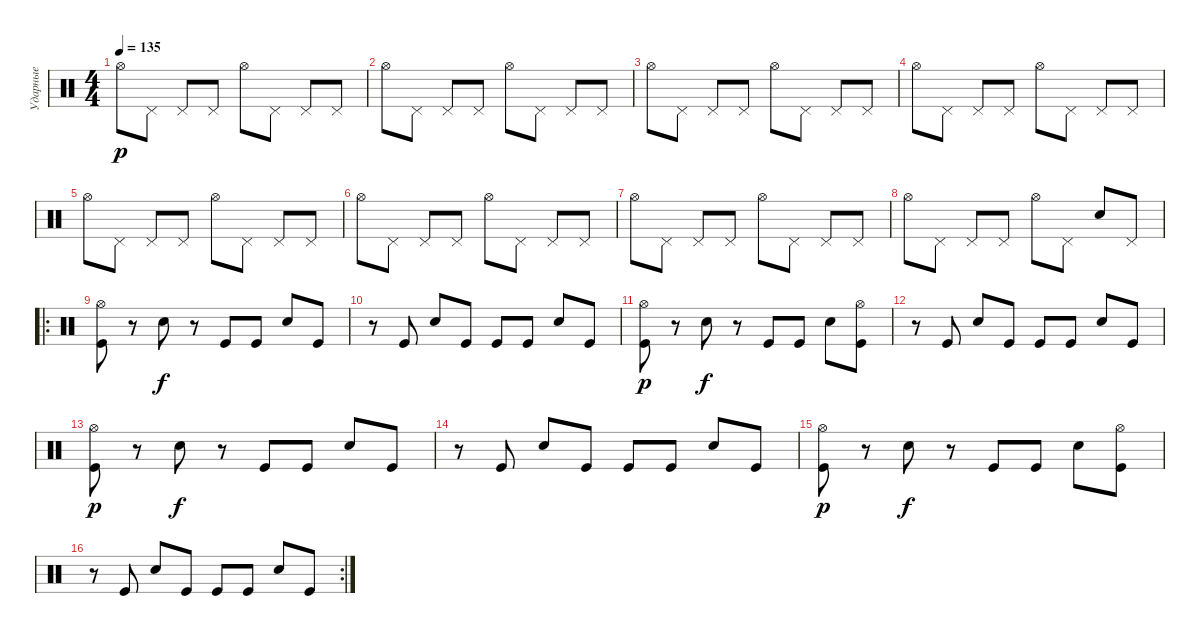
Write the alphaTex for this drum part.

\track ("Ударные" "Ударные") {instrument percussion}
\staff {score}
\articulation defaults
\ts (4 4)
\tempo 135
\clef neutral
\ks c "Hi-Hat (open)".8{dy p} "Pedal Hi-Hat (hit)".8 "Pedal Hi-Hat (hit)".8 "Pedal Hi-Hat (hit)".8 "Hi-Hat (open)".8 "Pedal Hi-Hat (hit)".8 "Pedal Hi-Hat (hit)".8 "Pedal Hi-Hat (hit)".8
|
"Hi-Hat (open)".8 "Pedal Hi-Hat (hit)".8 "Pedal Hi-Hat (hit)".8 "Pedal Hi-Hat (hit)".8 "Hi-Hat (open)".8 "Pedal Hi-Hat (hit)".8 "Pedal Hi-Hat (hit)".8 "Pedal Hi-Hat (hit)".8 |
"Hi-Hat (open)".8 "Pedal Hi-Hat (hit)".8 "Pedal Hi-Hat (hit)".8 "Pedal Hi-Hat (hit)".8 "Hi-Hat (open)".8 "Pedal Hi-Hat (hit)".8 "Pedal Hi-Hat (hit)".8 "Pedal Hi-Hat (hit)".8 |
"Hi-Hat (open)".8 "Pedal Hi-Hat (hit)".8 "Pedal Hi-Hat (hit)".8 "Pedal Hi-Hat (hit)".8 "Hi-Hat (open)".8 "Pedal Hi-Hat (hit)".8 "Pedal Hi-Hat (hit)".8 "Pedal Hi-Hat (hit)".8 |
"Hi-Hat (open)".8 "Pedal Hi-Hat (hit)".8 "Pedal Hi-Hat (hit)".8 "Pedal Hi-Hat (hit)".8 "Hi-Hat (open)".8 "Pedal Hi-Hat (hit)".8 "Pedal Hi-Hat (hit)".8 "Pedal Hi-Hat (hit)".8 |
"Hi-Hat (open)".8 "Pedal Hi-Hat (hit)".8 "Pedal Hi-Hat (hit)".8 "Pedal Hi-Hat (hit)".8 "Hi-Hat (open)".8 "Pedal Hi-Hat (hit)".8 "Pedal Hi-Hat (hit)".8 "Pedal Hi-Hat (hit)".8 |
"Hi-Hat (open)".8 "Pedal Hi-Hat (hit)".8 "Pedal Hi-Hat (hit)".8 "Pedal Hi-Hat (hit)".8 "Hi-Hat (open)".8 "Pedal Hi-Hat (hit)".8 "Pedal Hi-Hat (hit)".8 "Pedal Hi-Hat (hit)".8 |
"Hi-Hat (open)".8 "Pedal Hi-Hat (hit)".8 "Pedal Hi-Hat (hit)".8 "Pedal Hi-Hat (hit)".8 "Hi-Hat (open)".8 "Pedal Hi-Hat (hit)".8 "Snare (hit) 2".8 "Pedal Hi-Hat (hit)".8 |
\ro
("Kick (hit)" "Hi-Hat (open)").8 r.8 "Snare (hit) 2".8{dy f} r.8 "Kick (hit)".8 "Kick (hit)".8 "Snare (hit) 2".8 "Kick (hit)".8 |
r.8 "Kick (hit)".8 "Snare (hit) 2".8 "Kick (hit)".8 "Kick (hit)".8 "Kick (hit)".8 "Snare (hit) 2".8 "Kick (hit)".8 |
("Kick (hit)" "Hi-Hat (open)").8{dy p} r.8 "Snare (hit) 2".8{dy f} r.8 "Kick (hit)".8 "Kick (hit)".8 "Snare (hit) 2".8 ("Kick (hit)" "Hi-Hat (open)").8 |
r.8 "Kick (hit)".8 "Snare (hit) 2".8 "Kick (hit)".8 "Kick (hit)".8 "Kick (hit)".8 "Snare (hit) 2".8 "Kick (hit)".8 |
("Kick (hit)" "Hi-Hat (open)").8{dy p} r.8 "Snare (hit) 2".8{dy f} r.8 "Kick (hit)".8 "Kick (hit)".8 "Snare (hit) 2".8 "Kick (hit)".8 |
r.8 "Kick (hit)".8 "Snare (hit) 2".8 "Kick (hit)".8 "Kick (hit)".8 "Kick (hit)".8 "Snare (hit) 2".8 "Kick (hit)".8 |
("Kick (hit)" "Hi-Hat (open)").8{dy p} r.8 "Snare (hit) 2".8{dy f} r.8 "Kick (hit)".8 "Kick (hit)".8 "Snare (hit) 2".8 ("Kick (hit)" "Hi-Hat (open)").8 |
\rc 2
r.8 "Kick (hit)".8 "Snare (hit) 2".8 "Kick (hit)".8 "Kick (hit)".8 "Kick (hit)".8 "Snare (hit) 2".8 "Kick (hit)".8
